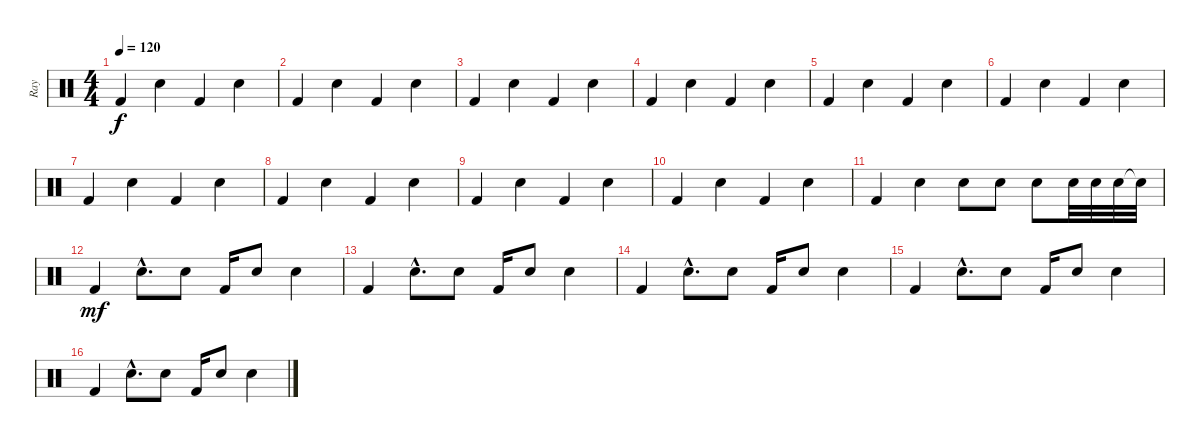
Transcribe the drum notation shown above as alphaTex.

\track ("Ray" "Ray") {instrument percussion}
\staff {score}
\articulation defaults
\ts (4 4)
\tempo 120
\clef neutral
\ks c "Kick (hit) 2".4{dy f} "Snare (hit) 2".4 "Kick (hit) 2".4 "Snare (hit) 2".4
|
"Kick (hit) 2".4 "Snare (hit) 2".4 "Kick (hit) 2".4 "Snare (hit) 2".4 |
"Kick (hit) 2".4 "Snare (hit) 2".4 "Kick (hit) 2".4 "Snare (hit) 2".4 |
"Kick (hit) 2".4 "Snare (hit) 2".4 "Kick (hit) 2".4 "Snare (hit) 2".4 |
"Kick (hit) 2".4 "Snare (hit) 2".4 "Kick (hit) 2".4 "Snare (hit) 2".4 |
"Kick (hit) 2".4 "Snare (hit) 2".4 "Kick (hit) 2".4 "Snare (hit) 2".4 |
"Kick (hit) 2".4 "Snare (hit) 2".4 "Kick (hit) 2".4 "Snare (hit) 2".4 |
"Kick (hit) 2".4 "Snare (hit) 2".4 "Kick (hit) 2".4 "Snare (hit) 2".4 |
"Kick (hit) 2".4 "Snare (hit) 2".4 "Kick (hit) 2".4 "Snare (hit) 2".4 |
"Kick (hit) 2".4 "Snare (hit) 2".4 "Kick (hit) 2".4 "Snare (hit) 2".4 |
"Kick (hit) 2".4 "Snare (hit) 2".4 "Snare (hit) 2".8 "Snare (hit) 2".8 "Snare (hit) 2".8 "Snare (hit) 2".32 "Snare (hit) 2".32 "Snare (hit) 2".32 "Snare (hit) 2"{t}.32 |
"Kick (hit) 2".4{dy mf} "Snare (hit) 2"{hac}.8{d} "Snare (hit) 2".8 "Kick (hit) 2".16 "Snare (hit) 2".8 "Snare (hit) 2".4 |
"Kick (hit) 2".4 "Snare (hit) 2"{hac}.8{d} "Snare (hit) 2".8 "Kick (hit) 2".16 "Snare (hit) 2".8 "Snare (hit) 2".4 |
"Kick (hit) 2".4 "Snare (hit) 2"{hac}.8{d} "Snare (hit) 2".8 "Kick (hit) 2".16 "Snare (hit) 2".8 "Snare (hit) 2".4 |
"Kick (hit) 2".4 "Snare (hit) 2"{hac}.8{d} "Snare (hit) 2".8 "Kick (hit) 2".16 "Snare (hit) 2".8 "Snare (hit) 2".4 |
"Kick (hit) 2".4 "Snare (hit) 2"{hac}.8{d} "Snare (hit) 2".8 "Kick (hit) 2".16 "Snare (hit) 2".8 "Snare (hit) 2".4
